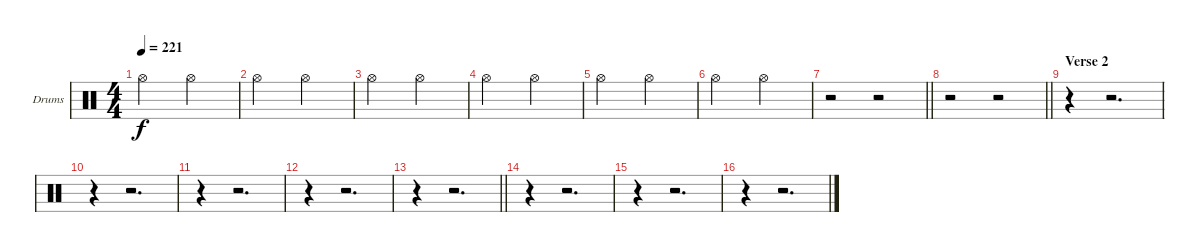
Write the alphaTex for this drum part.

\bracketExtendMode groupsimilarinstruments
\firstSystemTrackNameOrientation horizontal
\otherSystemsTrackNameOrientation horizontal
\track ("Drumkit" "Drums") {instrument percussion}
\staff {score}
\articulation defaults
\ts (4 4)
\tempo 221
\clef neutral
\ks c "Hi-Hat (open)".2{dy f} "Hi-Hat (open)".2
|
"Hi-Hat (open)".2 "Hi-Hat (open)".2 |
"Hi-Hat (open)".2 "Hi-Hat (open)".2 |
"Hi-Hat (open)".2 "Hi-Hat (open)".2 |
"Hi-Hat (open)".2 "Hi-Hat (open)".2 |
"Hi-Hat (open)".2 "Hi-Hat (open)".2 |
\barLineRight lightlight
r.2 r.2 |
\barLineRight lightlight
r.2 r.2 |
\section ("" "Verse 2")
r.4 r.2{d} |
r.4 r.2{d} |
r.4 r.2{d} |
r.4 r.2{d} |
\barLineRight lightlight
r.4 r.2{d} |
r.4 r.2{d} |
r.4 r.2{d} |
r.4 r.2{d}
